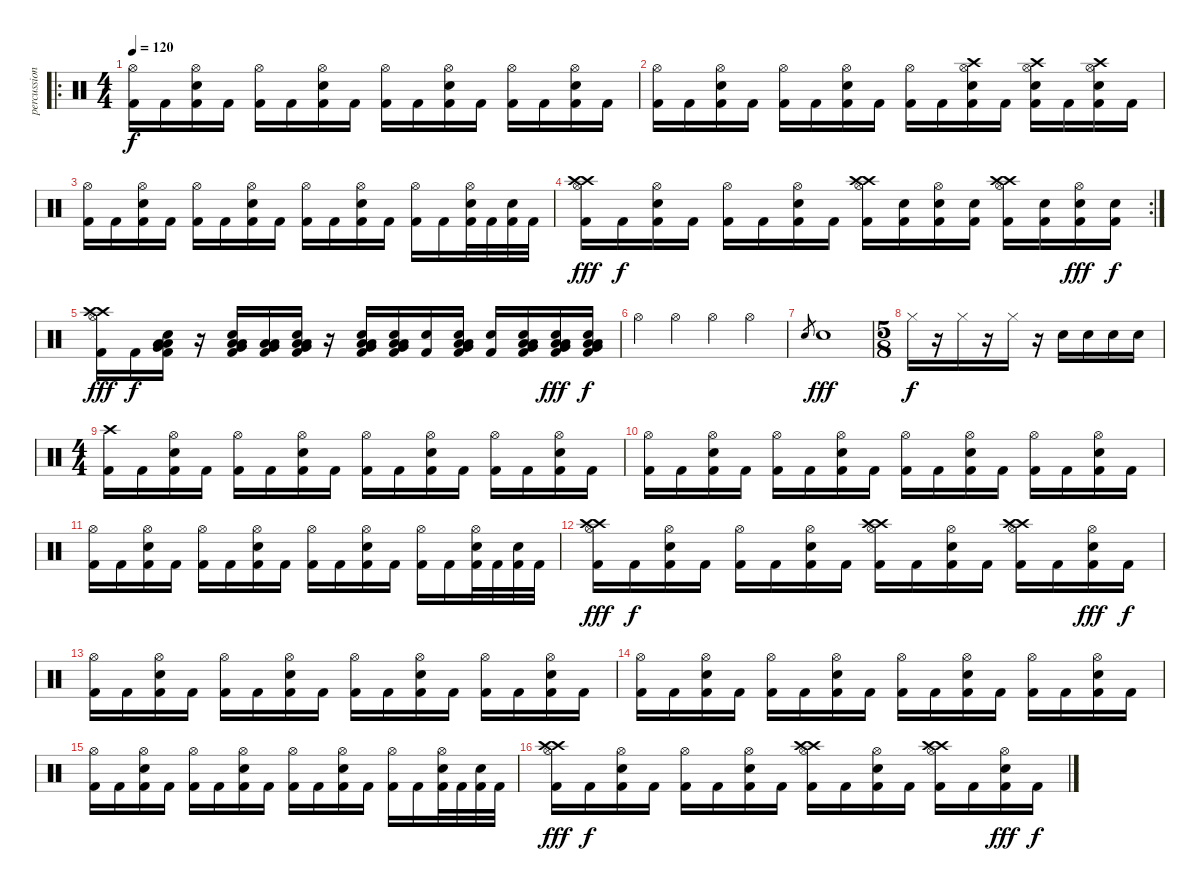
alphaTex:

\track ("percussions" "percussion") {instrument percussion}
\staff {score}
\articulation defaults
\ro
\ts (4 4)
\tempo 120
\clef neutral
\ks c
("Hi-Hat (open)" "Kick (hit) 2").16{dy f} "Kick (hit) 2".16 ("Hi-Hat (open)" "Electric Snare (hit)" "Kick (hit) 2").16 "Kick (hit) 2".16 ("Hi-Hat (open)" "Kick (hit) 2").16 "Kick (hit) 2".16 ("Hi-Hat (open)" "Electric Snare (hit)" "Kick (hit) 2").16 "Kick (hit) 2".16 ("Hi-Hat (open)" "Kick (hit) 2").16 "Kick (hit) 2".16 ("Hi-Hat (open)" "Electric Snare (hit)" "Kick (hit) 2").16 "Kick (hit) 2".16 ("Hi-Hat (open)" "Kick (hit) 2").16 "Kick (hit) 2".16 ("Hi-Hat (open)" "Electric Snare (hit)" "Kick (hit) 2").16 "Kick (hit) 2".16 |
("Hi-Hat (open)" "Kick (hit) 2").16 "Kick (hit) 2".16 ("Hi-Hat (open)" "Electric Snare (hit)" "Kick (hit) 2").16 "Kick (hit) 2".16 ("Hi-Hat (open)" "Kick (hit) 2").16 "Kick (hit) 2".16 ("Hi-Hat (open)" "Electric Snare (hit)" "Kick (hit) 2").16 "Kick (hit) 2".16 ("Hi-Hat (open)" "Kick (hit) 2").16 "Kick (hit) 2".16 ("Hi-Hat (open)" "Crash high (hit)" "Electric Snare (hit)" "Kick (hit) 2").16 "Kick (hit) 2".16 ("Hi-Hat (open)" "Crash high (hit)" "Electric Snare (hit)" "Kick (hit) 2").16 "Kick (hit) 2".16 ("Hi-Hat (open)" "Crash high (hit)" "Electric Snare (hit)" "Kick (hit) 2").16 "Kick (hit) 2".16 |
("Hi-Hat (open)" "Kick (hit) 2").16 "Kick (hit) 2".16 ("Hi-Hat (open)" "Electric Snare (hit)" "Kick (hit) 2").16 "Kick (hit) 2".16 ("Hi-Hat (open)" "Kick (hit) 2").16 "Kick (hit) 2".16 ("Hi-Hat (open)" "Electric Snare (hit)" "Kick (hit) 2").16 "Kick (hit) 2".16 ("Hi-Hat (open)" "Kick (hit) 2").16 "Kick (hit) 2".16 ("Hi-Hat (open)" "Electric Snare (hit)" "Kick (hit) 2").16 "Kick (hit) 2".16 ("Hi-Hat (open)" "Kick (hit) 2").16 "Kick (hit) 2".16 ("Hi-Hat (open)" "Electric Snare (hit)" "Kick (hit) 2").32 "Kick (hit) 2".32 ("Electric Snare (hit)" "Kick (hit) 2").32 "Kick (hit) 2".32 |
\rc 2
("Crash high (hit)" "Crash high (hit)" "Hi-Hat (open)" "Kick (hit) 2").16{dy fff} "Kick (hit) 2".16{dy f} ("Hi-Hat (open)" "Electric Snare (hit)" "Kick (hit) 2").16 "Kick (hit) 2".16 ("Hi-Hat (open)" "Kick (hit) 2").16 "Kick (hit) 2".16 ("Hi-Hat (open)" "Electric Snare (hit)" "Kick (hit) 2").16 "Kick (hit) 2".16 ("Crash high (hit)" "Crash high (hit)" "Hi-Hat (open)" "Kick (hit) 2").16 ("Electric Snare (hit)" "Kick (hit) 2").16 ("Hi-Hat (open)" "Electric Snare (hit)" "Kick (hit) 2").16 ("Electric Snare (hit)" "Kick (hit) 2").16 ("Crash high (hit)" "Crash high (hit)" "Hi-Hat (open)" "Kick (hit) 2").16 ("Electric Snare (hit)" "Kick (hit) 2").16 ("Hi-Hat (open)" "Electric Snare (hit)" "Kick (hit) 2").16{dy fff} ("Electric Snare (hit)" "Kick (hit) 2").16{dy f} |
("Crash high (hit)" "Crash high (hit)" "Hi-Hat (open)" "Kick (hit) 2").16{dy fff} "Kick (hit) 2".16{dy f} ("Low Floor Tom (hit)" "Very Low Tom (hit)" "Low Floor Tom (hit)" "Electric Snare (hit)" "Kick (hit) 2").16 r.16 ("Low Floor Tom (hit)" "Very Low Tom (hit)" "Low Floor Tom (hit)" "Electric Snare (hit)" "Kick (hit) 2").16 ("Low Floor Tom (hit)" "Very Low Tom (hit)" "Low Floor Tom (hit)" "Kick (hit) 2").16 ("Low Floor Tom (hit)" "Very Low Tom (hit)" "Low Floor Tom (hit)" "Electric Snare (hit)" "Kick (hit) 2").16 r.16 ("Low Floor Tom (hit)" "Very Low Tom (hit)" "Low Floor Tom (hit)" "Electric Snare (hit)" "Kick (hit) 2").16 ("Low Floor Tom (hit)" "Very Low Tom (hit)" "Low Floor Tom (hit)" "Electric Snare (hit)" "Kick (hit) 2").16 ("Electric Snare (hit)" "Kick (hit) 2").16 ("Low Floor Tom (hit)" "Very Low Tom (hit)" "Low Floor Tom (hit)" "Electric Snare (hit)" "Kick (hit) 2").16 ("Electric Snare (hit)" "Kick (hit) 2").16 ("Low Floor Tom (hit)" "Very Low Tom (hit)" "Low Floor Tom (hit)" "Electric Snare (hit)" "Kick (hit) 2").16 ("Low Floor Tom (hit)" "Very Low Tom (hit)" "Low Floor Tom (hit)" "Electric Snare (hit)" "Kick (hit) 2").16{dy fff} ("Low Floor Tom (hit)" "Very Low Tom (hit)" "Low Floor Tom (hit)" "Electric Snare (hit)" "Kick (hit) 2").16{dy f} |
"Hi-Hat (open)".4 "Hi-Hat (open)".4 "Hi-Hat (open)".4 "Hi-Hat (open)".4 |
"Electric Snare (hit)".8{gr} "Electric Snare (hit)"{be (custom 0 12 20 12 40 0 60 0)}.1{dy fff} |
\ts (5 8)
"Hi-Hat (closed)".16{dy f} r.16 "Hi-Hat (closed)".16 r.16 "Hi-Hat (closed)".16 r.16 "Electric Snare (hit)".16 "Electric Snare (hit)".16 "Electric Snare (hit)".16 "Electric Snare (hit)".16 |
\ts (4 4)
("Crash high (hit)" "Kick (hit) 2").16 "Kick (hit) 2".16 ("Hi-Hat (open)" "Electric Snare (hit)" "Kick (hit) 2").16 "Kick (hit) 2".16 ("Hi-Hat (open)" "Kick (hit) 2").16 "Kick (hit) 2".16 ("Hi-Hat (open)" "Electric Snare (hit)" "Kick (hit) 2").16 "Kick (hit) 2".16 ("Hi-Hat (open)" "Kick (hit) 2").16 "Kick (hit) 2".16 ("Hi-Hat (open)" "Electric Snare (hit)" "Kick (hit) 2").16 "Kick (hit) 2".16 ("Hi-Hat (open)" "Kick (hit) 2").16 "Kick (hit) 2".16 ("Hi-Hat (open)" "Electric Snare (hit)" "Kick (hit) 2").16 "Kick (hit) 2".16 |
("Hi-Hat (open)" "Kick (hit) 2").16 "Kick (hit) 2".16 ("Hi-Hat (open)" "Electric Snare (hit)" "Kick (hit) 2").16 "Kick (hit) 2".16 ("Hi-Hat (open)" "Kick (hit) 2").16 "Kick (hit) 2".16 ("Hi-Hat (open)" "Electric Snare (hit)" "Kick (hit) 2").16 "Kick (hit) 2".16 ("Hi-Hat (open)" "Kick (hit) 2").16 "Kick (hit) 2".16 ("Hi-Hat (open)" "Electric Snare (hit)" "Kick (hit) 2").16 "Kick (hit) 2".16 ("Hi-Hat (open)" "Kick (hit) 2").16 "Kick (hit) 2".16 ("Hi-Hat (open)" "Electric Snare (hit)" "Kick (hit) 2").16 "Kick (hit) 2".16 |
("Hi-Hat (open)" "Kick (hit) 2").16 "Kick (hit) 2".16 ("Hi-Hat (open)" "Electric Snare (hit)" "Kick (hit) 2").16 "Kick (hit) 2".16 ("Hi-Hat (open)" "Kick (hit) 2").16 "Kick (hit) 2".16 ("Hi-Hat (open)" "Electric Snare (hit)" "Kick (hit) 2").16 "Kick (hit) 2".16 ("Hi-Hat (open)" "Kick (hit) 2").16 "Kick (hit) 2".16 ("Hi-Hat (open)" "Electric Snare (hit)" "Kick (hit) 2").16 "Kick (hit) 2".16 ("Hi-Hat (open)" "Kick (hit) 2").16 "Kick (hit) 2".16 ("Hi-Hat (open)" "Electric Snare (hit)" "Kick (hit) 2").32 "Kick (hit) 2".32 ("Electric Snare (hit)" "Kick (hit) 2").32 "Kick (hit) 2".32 |
("Crash high (hit)" "Crash high (hit)" "Hi-Hat (open)" "Kick (hit) 2").16{dy fff} "Kick (hit) 2".16{dy f} ("Hi-Hat (open)" "Electric Snare (hit)" "Kick (hit) 2").16 "Kick (hit) 2".16 ("Hi-Hat (open)" "Kick (hit) 2").16 "Kick (hit) 2".16 ("Hi-Hat (open)" "Electric Snare (hit)" "Kick (hit) 2").16 "Kick (hit) 2".16 ("Crash high (hit)" "Crash high (hit)" "Hi-Hat (open)" "Kick (hit) 2").16 "Kick (hit) 2".16 ("Hi-Hat (open)" "Electric Snare (hit)" "Kick (hit) 2").16 "Kick (hit) 2".16 ("Crash high (hit)" "Crash high (hit)" "Hi-Hat (open)" "Kick (hit) 2").16 "Kick (hit) 2".16 ("Hi-Hat (open)" "Electric Snare (hit)" "Kick (hit) 2").16{dy fff} "Kick (hit) 2".16{dy f} |
("Hi-Hat (open)" "Kick (hit) 2").16 "Kick (hit) 2".16 ("Hi-Hat (open)" "Electric Snare (hit)" "Kick (hit) 2").16 "Kick (hit) 2".16 ("Hi-Hat (open)" "Kick (hit) 2").16 "Kick (hit) 2".16 ("Hi-Hat (open)" "Electric Snare (hit)" "Kick (hit) 2").16 "Kick (hit) 2".16 ("Hi-Hat (open)" "Kick (hit) 2").16 "Kick (hit) 2".16 ("Hi-Hat (open)" "Electric Snare (hit)" "Kick (hit) 2").16 "Kick (hit) 2".16 ("Hi-Hat (open)" "Kick (hit) 2").16 "Kick (hit) 2".16 ("Hi-Hat (open)" "Electric Snare (hit)" "Kick (hit) 2").16 "Kick (hit) 2".16 |
("Hi-Hat (open)" "Kick (hit) 2").16 "Kick (hit) 2".16 ("Hi-Hat (open)" "Electric Snare (hit)" "Kick (hit) 2").16 "Kick (hit) 2".16 ("Hi-Hat (open)" "Kick (hit) 2").16 "Kick (hit) 2".16 ("Hi-Hat (open)" "Electric Snare (hit)" "Kick (hit) 2").16 "Kick (hit) 2".16 ("Hi-Hat (open)" "Kick (hit) 2").16 "Kick (hit) 2".16 ("Hi-Hat (open)" "Electric Snare (hit)" "Kick (hit) 2").16 "Kick (hit) 2".16 ("Hi-Hat (open)" "Kick (hit) 2").16 "Kick (hit) 2".16 ("Hi-Hat (open)" "Electric Snare (hit)" "Kick (hit) 2").16 "Kick (hit) 2".16 |
("Hi-Hat (open)" "Kick (hit) 2").16 "Kick (hit) 2".16 ("Hi-Hat (open)" "Electric Snare (hit)" "Kick (hit) 2").16 "Kick (hit) 2".16 ("Hi-Hat (open)" "Kick (hit) 2").16 "Kick (hit) 2".16 ("Hi-Hat (open)" "Electric Snare (hit)" "Kick (hit) 2").16 "Kick (hit) 2".16 ("Hi-Hat (open)" "Kick (hit) 2").16 "Kick (hit) 2".16 ("Hi-Hat (open)" "Electric Snare (hit)" "Kick (hit) 2").16 "Kick (hit) 2".16 ("Hi-Hat (open)" "Kick (hit) 2").16 "Kick (hit) 2".16 ("Hi-Hat (open)" "Electric Snare (hit)" "Kick (hit) 2").32 "Kick (hit) 2".32 ("Electric Snare (hit)" "Kick (hit) 2").32 "Kick (hit) 2".32 |
("Crash high (hit)" "Crash high (hit)" "Hi-Hat (open)" "Kick (hit) 2").16{dy fff} "Kick (hit) 2".16{dy f} ("Hi-Hat (open)" "Electric Snare (hit)" "Kick (hit) 2").16 "Kick (hit) 2".16 ("Hi-Hat (open)" "Kick (hit) 2").16 "Kick (hit) 2".16 ("Hi-Hat (open)" "Electric Snare (hit)" "Kick (hit) 2").16 "Kick (hit) 2".16 ("Crash high (hit)" "Crash high (hit)" "Hi-Hat (open)" "Kick (hit) 2").16 "Kick (hit) 2".16 ("Hi-Hat (open)" "Electric Snare (hit)" "Kick (hit) 2").16 "Kick (hit) 2".16 ("Crash high (hit)" "Crash high (hit)" "Hi-Hat (open)" "Kick (hit) 2").16 "Kick (hit) 2".16 ("Hi-Hat (open)" "Electric Snare (hit)" "Kick (hit) 2").16{dy fff} "Kick (hit) 2".16{dy f}
